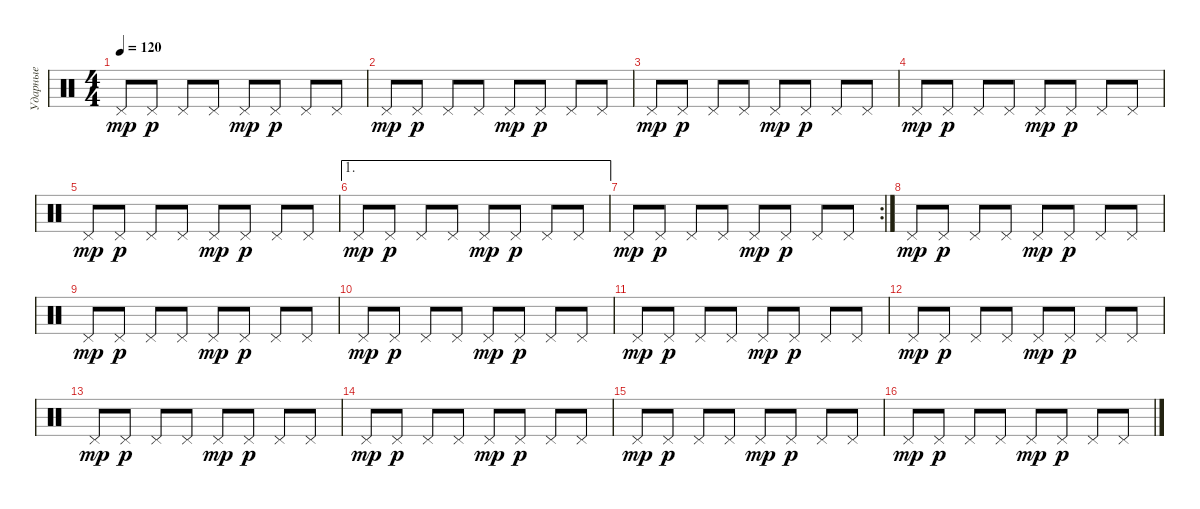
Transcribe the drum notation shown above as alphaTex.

\track ("Ударные" "Ударные") {instrument percussion}
\staff {score}
\articulation defaults
\ts (4 4)
\tempo 120
\clef neutral
\ks c "Pedal Hi-Hat (hit)".8{dy mp} "Pedal Hi-Hat (hit)".8{dy p} "Pedal Hi-Hat (hit)".8 "Pedal Hi-Hat (hit)".8 "Pedal Hi-Hat (hit)".8{dy mp} "Pedal Hi-Hat (hit)".8{dy p} "Pedal Hi-Hat (hit)".8 "Pedal Hi-Hat (hit)".8
|
"Pedal Hi-Hat (hit)".8{dy mp} "Pedal Hi-Hat (hit)".8{dy p} "Pedal Hi-Hat (hit)".8 "Pedal Hi-Hat (hit)".8 "Pedal Hi-Hat (hit)".8{dy mp} "Pedal Hi-Hat (hit)".8{dy p} "Pedal Hi-Hat (hit)".8 "Pedal Hi-Hat (hit)".8 |
"Pedal Hi-Hat (hit)".8{dy mp} "Pedal Hi-Hat (hit)".8{dy p} "Pedal Hi-Hat (hit)".8 "Pedal Hi-Hat (hit)".8 "Pedal Hi-Hat (hit)".8{dy mp} "Pedal Hi-Hat (hit)".8{dy p} "Pedal Hi-Hat (hit)".8 "Pedal Hi-Hat (hit)".8 |
"Pedal Hi-Hat (hit)".8{dy mp} "Pedal Hi-Hat (hit)".8{dy p} "Pedal Hi-Hat (hit)".8 "Pedal Hi-Hat (hit)".8 "Pedal Hi-Hat (hit)".8{dy mp} "Pedal Hi-Hat (hit)".8{dy p} "Pedal Hi-Hat (hit)".8 "Pedal Hi-Hat (hit)".8 |
"Pedal Hi-Hat (hit)".8{dy mp} "Pedal Hi-Hat (hit)".8{dy p} "Pedal Hi-Hat (hit)".8 "Pedal Hi-Hat (hit)".8 "Pedal Hi-Hat (hit)".8{dy mp} "Pedal Hi-Hat (hit)".8{dy p} "Pedal Hi-Hat (hit)".8 "Pedal Hi-Hat (hit)".8 |
\ae 1 "Pedal Hi-Hat (hit)".8{dy mp} "Pedal Hi-Hat (hit)".8{dy p} "Pedal Hi-Hat (hit)".8 "Pedal Hi-Hat (hit)".8 "Pedal Hi-Hat (hit)".8{dy mp} "Pedal Hi-Hat (hit)".8{dy p} "Pedal Hi-Hat (hit)".8 "Pedal Hi-Hat (hit)".8
|
\rc 2 "Pedal Hi-Hat (hit)".8{dy mp} "Pedal Hi-Hat (hit)".8{dy p} "Pedal Hi-Hat (hit)".8 "Pedal Hi-Hat (hit)".8 "Pedal Hi-Hat (hit)".8{dy mp} "Pedal Hi-Hat (hit)".8{dy p} "Pedal Hi-Hat (hit)".8 "Pedal Hi-Hat (hit)".8
|
"Pedal Hi-Hat (hit)".8{dy mp} "Pedal Hi-Hat (hit)".8{dy p} "Pedal Hi-Hat (hit)".8 "Pedal Hi-Hat (hit)".8 "Pedal Hi-Hat (hit)".8{dy mp} "Pedal Hi-Hat (hit)".8{dy p} "Pedal Hi-Hat (hit)".8 "Pedal Hi-Hat (hit)".8 |
"Pedal Hi-Hat (hit)".8{dy mp} "Pedal Hi-Hat (hit)".8{dy p} "Pedal Hi-Hat (hit)".8 "Pedal Hi-Hat (hit)".8 "Pedal Hi-Hat (hit)".8{dy mp} "Pedal Hi-Hat (hit)".8{dy p} "Pedal Hi-Hat (hit)".8 "Pedal Hi-Hat (hit)".8 |
"Pedal Hi-Hat (hit)".8{dy mp} "Pedal Hi-Hat (hit)".8{dy p} "Pedal Hi-Hat (hit)".8 "Pedal Hi-Hat (hit)".8 "Pedal Hi-Hat (hit)".8{dy mp} "Pedal Hi-Hat (hit)".8{dy p} "Pedal Hi-Hat (hit)".8 "Pedal Hi-Hat (hit)".8 |
"Pedal Hi-Hat (hit)".8{dy mp} "Pedal Hi-Hat (hit)".8{dy p} "Pedal Hi-Hat (hit)".8 "Pedal Hi-Hat (hit)".8 "Pedal Hi-Hat (hit)".8{dy mp} "Pedal Hi-Hat (hit)".8{dy p} "Pedal Hi-Hat (hit)".8 "Pedal Hi-Hat (hit)".8 |
"Pedal Hi-Hat (hit)".8{dy mp} "Pedal Hi-Hat (hit)".8{dy p} "Pedal Hi-Hat (hit)".8 "Pedal Hi-Hat (hit)".8 "Pedal Hi-Hat (hit)".8{dy mp} "Pedal Hi-Hat (hit)".8{dy p} "Pedal Hi-Hat (hit)".8 "Pedal Hi-Hat (hit)".8 |
"Pedal Hi-Hat (hit)".8{dy mp} "Pedal Hi-Hat (hit)".8{dy p} "Pedal Hi-Hat (hit)".8 "Pedal Hi-Hat (hit)".8 "Pedal Hi-Hat (hit)".8{dy mp} "Pedal Hi-Hat (hit)".8{dy p} "Pedal Hi-Hat (hit)".8 "Pedal Hi-Hat (hit)".8 |
"Pedal Hi-Hat (hit)".8{dy mp} "Pedal Hi-Hat (hit)".8{dy p} "Pedal Hi-Hat (hit)".8 "Pedal Hi-Hat (hit)".8 "Pedal Hi-Hat (hit)".8{dy mp} "Pedal Hi-Hat (hit)".8{dy p} "Pedal Hi-Hat (hit)".8 "Pedal Hi-Hat (hit)".8 |
"Pedal Hi-Hat (hit)".8{dy mp} "Pedal Hi-Hat (hit)".8{dy p} "Pedal Hi-Hat (hit)".8 "Pedal Hi-Hat (hit)".8 "Pedal Hi-Hat (hit)".8{dy mp} "Pedal Hi-Hat (hit)".8{dy p} "Pedal Hi-Hat (hit)".8 "Pedal Hi-Hat (hit)".8 |
"Pedal Hi-Hat (hit)".8{dy mp} "Pedal Hi-Hat (hit)".8{dy p} "Pedal Hi-Hat (hit)".8 "Pedal Hi-Hat (hit)".8 "Pedal Hi-Hat (hit)".8{dy mp} "Pedal Hi-Hat (hit)".8{dy p} "Pedal Hi-Hat (hit)".8 "Pedal Hi-Hat (hit)".8
